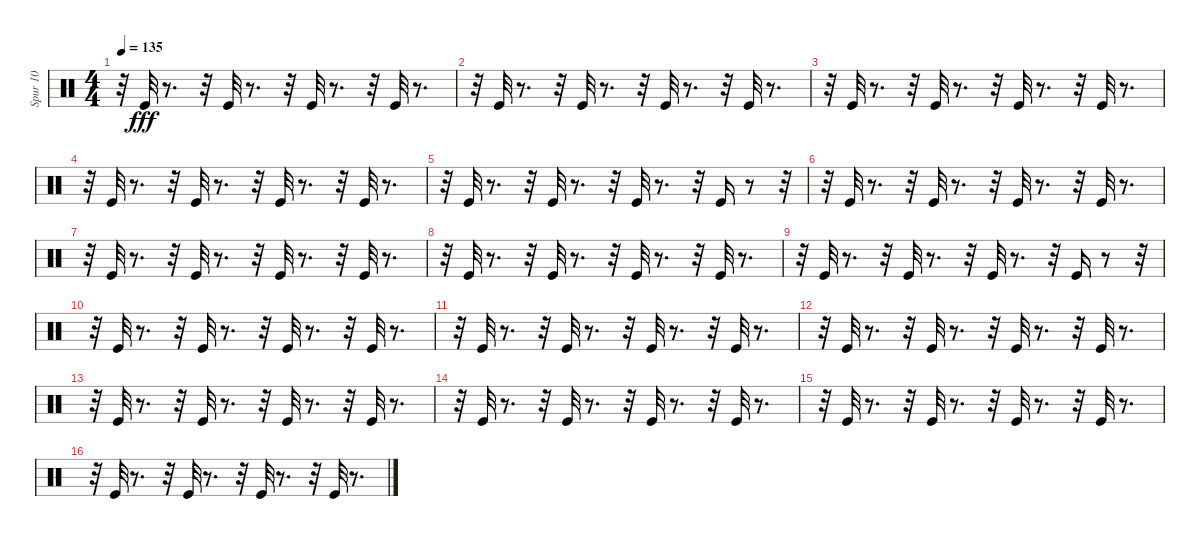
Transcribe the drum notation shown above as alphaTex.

\track ("Spur 10" "Spur 10") {instrument percussion}
\staff {score}
\articulation defaults
\ts (4 4)
\tempo 135
\clef neutral
\ks c
r.32{dy fff} "Kick (hit)".32 r.8{d} r.32 "Kick (hit)".32 r.8{d} r.32 "Kick (hit)".32 r.8{d} r.32 "Kick (hit)".32 r.8{d} |
r.32 "Kick (hit)".32 r.8{d} r.32 "Kick (hit)".32 r.8{d} r.32 "Kick (hit)".32 r.8{d} r.32 "Kick (hit)".32 r.8{d} |
r.32 "Kick (hit)".32 r.8{d} r.32 "Kick (hit)".32 r.8{d} r.32 "Kick (hit)".32 r.8{d} r.32 "Kick (hit)".32 r.8{d} |
r.32 "Kick (hit)".32 r.8{d} r.32 "Kick (hit)".32 r.8{d} r.32 "Kick (hit)".32 r.8{d} r.32 "Kick (hit)".32 r.8{d} |
r.32 "Kick (hit)".32 r.8{d} r.32 "Kick (hit)".32 r.8{d} r.32 "Kick (hit)".32 r.8{d} r.32 "Kick (hit)".16 r.8 r.32 |
r.32 "Kick (hit)".32 r.8{d} r.32 "Kick (hit)".32 r.8{d} r.32 "Kick (hit)".32 r.8{d} r.32 "Kick (hit)".32 r.8{d} |
r.32 "Kick (hit)".32 r.8{d} r.32 "Kick (hit)".32 r.8{d} r.32 "Kick (hit)".32 r.8{d} r.32 "Kick (hit)".32 r.8{d} |
r.32 "Kick (hit)".32 r.8{d} r.32 "Kick (hit)".32 r.8{d} r.32 "Kick (hit)".32 r.8{d} r.32 "Kick (hit)".32 r.8{d} |
r.32 "Kick (hit)".32 r.8{d} r.32 "Kick (hit)".32 r.8{d} r.32 "Kick (hit)".32 r.8{d} r.32 "Kick (hit)".16 r.8 r.32 |
r.32 "Kick (hit)".32 r.8{d} r.32 "Kick (hit)".32 r.8{d} r.32 "Kick (hit)".32 r.8{d} r.32 "Kick (hit)".32 r.8{d} |
r.32 "Kick (hit)".32 r.8{d} r.32 "Kick (hit)".32 r.8{d} r.32 "Kick (hit)".32 r.8{d} r.32 "Kick (hit)".32 r.8{d} |
r.32 "Kick (hit)".32 r.8{d} r.32 "Kick (hit)".32 r.8{d} r.32 "Kick (hit)".32 r.8{d} r.32 "Kick (hit)".32 r.8{d} |
r.32 "Kick (hit)".32 r.8{d} r.32 "Kick (hit)".32 r.8{d} r.32 "Kick (hit)".32 r.8{d} r.32 "Kick (hit)".32 r.8{d} |
r.32 "Kick (hit)".32 r.8{d} r.32 "Kick (hit)".32 r.8{d} r.32 "Kick (hit)".32 r.8{d} r.32 "Kick (hit)".32 r.8{d} |
r.32 "Kick (hit)".32 r.8{d} r.32 "Kick (hit)".32 r.8{d} r.32 "Kick (hit)".32 r.8{d} r.32 "Kick (hit)".32 r.8{d} |
r.32 "Kick (hit)".32 r.8{d} r.32 "Kick (hit)".32 r.8{d} r.32 "Kick (hit)".32 r.8{d} r.32 "Kick (hit)".32 r.8{d}
